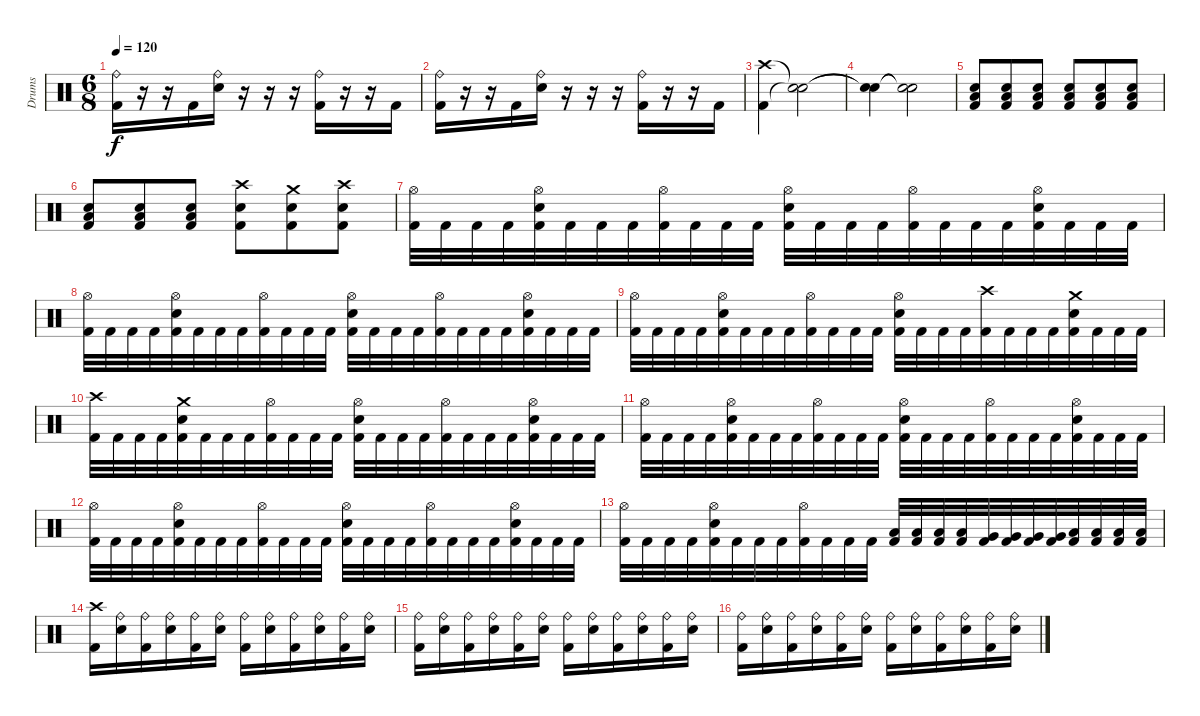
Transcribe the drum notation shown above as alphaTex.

\track ("Drums" "Drums") {instrument percussion}
\staff {score}
\articulation defaults
\ts (6 8)
\tempo 120
\clef neutral
\ks c
("Kick (hit) 2" "Ride (bell)").16{dy f} r.16 r.16 "Kick (hit) 2".16 ("Electric Snare (hit)" "Ride (bell)").16 r.16 r.16 r.16 ("Kick (hit) 2" "Ride (bell)").16 r.16 r.16 "Kick (hit) 2".16 |
("Kick (hit) 2" "Ride (bell)").16 r.16 r.16 "Kick (hit) 2".16 ("Electric Snare (hit)" "Ride (bell)").16 r.16 r.16 r.16 ("Kick (hit) 2" "Ride (bell)").16 r.16 r.16 "Kick (hit) 2".16 |
("Crash high (hit)" "Kick (hit) 2").4 ("Snare (hit)"{t} "Snare (hit)"{t}).2 |
("Snare (hit)"{t} "Snare (hit)"{t}).4 ("Snare (hit)"{t} "Snare (hit)"{t}).2 |
("Low Floor Tom (hit)" "Electric Snare (hit)" "Kick (hit) 2").8{volume 2} ("Low Floor Tom (hit)" "Electric Snare (hit)" "Kick (hit) 2").8{volume 4} ("Low Floor Tom (hit)" "Electric Snare (hit)" "Kick (hit) 2").8{volume 6} ("Low Floor Tom (hit)" "Electric Snare (hit)" "Kick (hit) 2").8{volume 8} ("Low Floor Tom (hit)" "Electric Snare (hit)" "Kick (hit) 2").8{volume 10} ("Low Floor Tom (hit)" "Electric Snare (hit)" "Kick (hit) 2").8{volume 12} |
("Low Floor Tom (hit)" "Electric Snare (hit)" "Kick (hit) 2").8{volume 14} ("Low Floor Tom (hit)" "Electric Snare (hit)" "Kick (hit) 2").8{volume 16} ("Low Floor Tom (hit)" "Electric Snare (hit)" "Kick (hit) 2").8 ("Crash high (hit)" "Electric Snare (hit)" "Kick (hit) 2").8 ("Crash medium (hit)" "Electric Snare (hit)" "Kick (hit) 2").8 ("Crash high (hit)" "Electric Snare (hit)" "Kick (hit) 2").8 |
("Hi-Hat (open)" "Kick (hit) 2").32 "Kick (hit) 2".32 "Kick (hit) 2".32 "Kick (hit) 2".32 ("Hi-Hat (open)" "Electric Snare (hit)" "Kick (hit) 2").32 "Kick (hit) 2".32 "Kick (hit) 2".32 "Kick (hit) 2".32 ("Hi-Hat (open)" "Kick (hit) 2").32 "Kick (hit) 2".32 "Kick (hit) 2".32 "Kick (hit) 2".32 ("Hi-Hat (open)" "Electric Snare (hit)" "Kick (hit) 2").32 "Kick (hit) 2".32 "Kick (hit) 2".32 "Kick (hit) 2".32 ("Hi-Hat (open)" "Kick (hit) 2").32 "Kick (hit) 2".32 "Kick (hit) 2".32 "Kick (hit) 2".32 ("Hi-Hat (open)" "Electric Snare (hit)" "Kick (hit) 2").32 "Kick (hit) 2".32 "Kick (hit) 2".32 "Kick (hit) 2".32 |
("Hi-Hat (open)" "Kick (hit) 2").32 "Kick (hit) 2".32 "Kick (hit) 2".32 "Kick (hit) 2".32 ("Hi-Hat (open)" "Electric Snare (hit)" "Kick (hit) 2").32 "Kick (hit) 2".32 "Kick (hit) 2".32 "Kick (hit) 2".32 ("Hi-Hat (open)" "Kick (hit) 2").32 "Kick (hit) 2".32 "Kick (hit) 2".32 "Kick (hit) 2".32 ("Hi-Hat (open)" "Electric Snare (hit)" "Kick (hit) 2").32 "Kick (hit) 2".32 "Kick (hit) 2".32 "Kick (hit) 2".32 ("Hi-Hat (open)" "Kick (hit) 2").32 "Kick (hit) 2".32 "Kick (hit) 2".32 "Kick (hit) 2".32 ("Hi-Hat (open)" "Electric Snare (hit)" "Kick (hit) 2").32 "Kick (hit) 2".32 "Kick (hit) 2".32 "Kick (hit) 2".32 |
("Hi-Hat (open)" "Kick (hit) 2").32 "Kick (hit) 2".32 "Kick (hit) 2".32 "Kick (hit) 2".32 ("Hi-Hat (open)" "Electric Snare (hit)" "Kick (hit) 2").32 "Kick (hit) 2".32 "Kick (hit) 2".32 "Kick (hit) 2".32 ("Hi-Hat (open)" "Kick (hit) 2").32 "Kick (hit) 2".32 "Kick (hit) 2".32 "Kick (hit) 2".32 ("Hi-Hat (open)" "Electric Snare (hit)" "Kick (hit) 2").32 "Kick (hit) 2".32 "Kick (hit) 2".32 "Kick (hit) 2".32 ("Crash high (hit)" "Kick (hit) 2").32 "Kick (hit) 2".32 "Kick (hit) 2".32 "Kick (hit) 2".32 ("Crash medium (hit)" "Electric Snare (hit)" "Kick (hit) 2").32 "Kick (hit) 2".32 "Kick (hit) 2".32 "Kick (hit) 2".32 |
("Crash high (hit)" "Kick (hit) 2").32 "Kick (hit) 2".32 "Kick (hit) 2".32 "Kick (hit) 2".32 ("Crash medium (hit)" "Electric Snare (hit)" "Kick (hit) 2").32 "Kick (hit) 2".32 "Kick (hit) 2".32 "Kick (hit) 2".32 ("Hi-Hat (open)" "Kick (hit) 2").32 "Kick (hit) 2".32 "Kick (hit) 2".32 "Kick (hit) 2".32 ("Hi-Hat (open)" "Electric Snare (hit)" "Kick (hit) 2").32 "Kick (hit) 2".32 "Kick (hit) 2".32 "Kick (hit) 2".32 ("Hi-Hat (open)" "Kick (hit) 2").32 "Kick (hit) 2".32 "Kick (hit) 2".32 "Kick (hit) 2".32 ("Hi-Hat (open)" "Electric Snare (hit)" "Kick (hit) 2").32 "Kick (hit) 2".32 "Kick (hit) 2".32 "Kick (hit) 2".32 |
("Hi-Hat (open)" "Kick (hit) 2").32 "Kick (hit) 2".32 "Kick (hit) 2".32 "Kick (hit) 2".32 ("Hi-Hat (open)" "Electric Snare (hit)" "Kick (hit) 2").32 "Kick (hit) 2".32 "Kick (hit) 2".32 "Kick (hit) 2".32 ("Hi-Hat (open)" "Kick (hit) 2").32 "Kick (hit) 2".32 "Kick (hit) 2".32 "Kick (hit) 2".32 ("Hi-Hat (open)" "Electric Snare (hit)" "Kick (hit) 2").32 "Kick (hit) 2".32 "Kick (hit) 2".32 "Kick (hit) 2".32 ("Hi-Hat (open)" "Kick (hit) 2").32 "Kick (hit) 2".32 "Kick (hit) 2".32 "Kick (hit) 2".32 ("Hi-Hat (open)" "Electric Snare (hit)" "Kick (hit) 2").32 "Kick (hit) 2".32 "Kick (hit) 2".32 "Kick (hit) 2".32 |
("Hi-Hat (open)" "Kick (hit) 2").32 "Kick (hit) 2".32 "Kick (hit) 2".32 "Kick (hit) 2".32 ("Hi-Hat (open)" "Electric Snare (hit)" "Kick (hit) 2").32 "Kick (hit) 2".32 "Kick (hit) 2".32 "Kick (hit) 2".32 ("Hi-Hat (open)" "Kick (hit) 2").32 "Kick (hit) 2".32 "Kick (hit) 2".32 "Kick (hit) 2".32 ("Hi-Hat (open)" "Electric Snare (hit)" "Kick (hit) 2").32 "Kick (hit) 2".32 "Kick (hit) 2".32 "Kick (hit) 2".32 ("Hi-Hat (open)" "Kick (hit) 2").32 "Kick (hit) 2".32 "Kick (hit) 2".32 "Kick (hit) 2".32 ("Hi-Hat (open)" "Electric Snare (hit)" "Kick (hit) 2").32 "Kick (hit) 2".32 "Kick (hit) 2".32 "Kick (hit) 2".32 |
("Hi-Hat (open)" "Kick (hit) 2").32 "Kick (hit) 2".32 "Kick (hit) 2".32 "Kick (hit) 2".32 ("Hi-Hat (open)" "Electric Snare (hit)" "Kick (hit) 2").32 "Kick (hit) 2".32 "Kick (hit) 2".32 "Kick (hit) 2".32 ("Hi-Hat (open)" "Kick (hit) 2").32 "Kick (hit) 2".32 "Kick (hit) 2".32 "Kick (hit) 2".32 ("Kick (hit) 2" "Low Tom (hit)").32 ("Kick (hit) 2" "Low Tom (hit)").32 ("Kick (hit) 2" "Low Tom (hit)").32 ("Kick (hit) 2" "Low Tom (hit)").32 ("Kick (hit) 2" "Very Low Tom (hit)").32 ("Kick (hit) 2" "Very Low Tom (hit)").32 ("Kick (hit) 2" "Very Low Tom (hit)").32 ("Kick (hit) 2" "Very Low Tom (hit)").32 ("Kick (hit) 2" "Low Floor Tom (hit)").32 ("Kick (hit) 2" "Low Floor Tom (hit)").32 ("Kick (hit) 2" "Low Floor Tom (hit)").32 ("Kick (hit) 2" "Low Floor Tom (hit)").32 |
("Crash high (hit)" "Kick (hit) 2").16 ("Ride (bell)" "Electric Snare (hit)").16 ("Ride (bell)" "Kick (hit) 2").16 ("Ride (bell)" "Electric Snare (hit)").16 ("Ride (bell)" "Kick (hit) 2").16 ("Ride (bell)" "Electric Snare (hit)").16 ("Ride (bell)" "Kick (hit) 2").16 ("Ride (bell)" "Electric Snare (hit)").16 ("Ride (bell)" "Kick (hit) 2").16 ("Ride (bell)" "Electric Snare (hit)").16 ("Ride (bell)" "Kick (hit) 2").16 ("Ride (bell)" "Electric Snare (hit)").16 |
("Ride (bell)" "Kick (hit) 2").16 ("Ride (bell)" "Electric Snare (hit)").16 ("Ride (bell)" "Kick (hit) 2").16 ("Ride (bell)" "Electric Snare (hit)").16 ("Ride (bell)" "Kick (hit) 2").16 ("Ride (bell)" "Electric Snare (hit)").16 ("Ride (bell)" "Kick (hit) 2").16 ("Ride (bell)" "Electric Snare (hit)").16 ("Ride (bell)" "Kick (hit) 2").16 ("Ride (bell)" "Electric Snare (hit)").16 ("Ride (bell)" "Kick (hit) 2").16 ("Ride (bell)" "Electric Snare (hit)").16 |
("Ride (bell)" "Kick (hit) 2").16 ("Ride (bell)" "Electric Snare (hit)").16 ("Ride (bell)" "Kick (hit) 2").16 ("Ride (bell)" "Electric Snare (hit)").16 ("Ride (bell)" "Kick (hit) 2").16 ("Ride (bell)" "Electric Snare (hit)").16 ("Ride (bell)" "Kick (hit) 2").16 ("Ride (bell)" "Electric Snare (hit)").16 ("Ride (bell)" "Kick (hit) 2").16 ("Ride (bell)" "Electric Snare (hit)").16 ("Ride (bell)" "Kick (hit) 2").16 ("Ride (bell)" "Electric Snare (hit)").16
